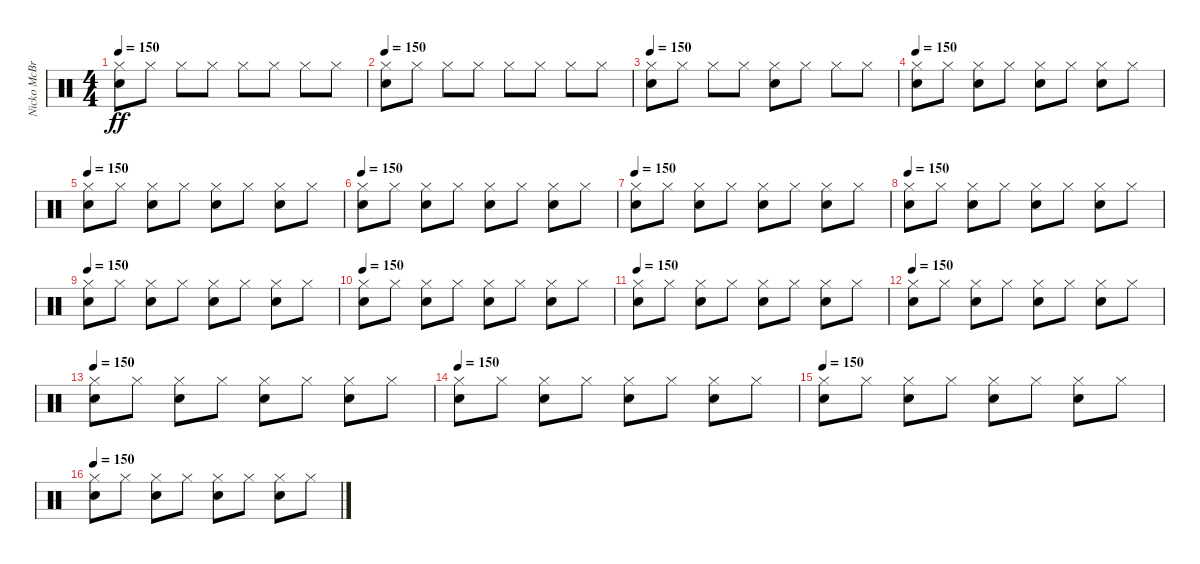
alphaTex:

\track ("Nicko McBrain" "Nicko McBr") {instrument percussion}
\staff {score}
\articulation defaults
\ts (4 4)
\tempo 150
\clef neutral
\ks c
("Snare (hit) 2" "Hi-Hat (closed)").8{dy ff} "Hi-Hat (closed)".8 "Hi-Hat (closed)".8 "Hi-Hat (closed)".8 "Hi-Hat (closed)".8 "Hi-Hat (closed)".8 "Hi-Hat (closed)".8 "Hi-Hat (closed)".8 |
\tempo 150
("Snare (hit) 2" "Hi-Hat (closed)").8 "Hi-Hat (closed)".8 "Hi-Hat (closed)".8 "Hi-Hat (closed)".8 "Hi-Hat (closed)".8 "Hi-Hat (closed)".8 "Hi-Hat (closed)".8 "Hi-Hat (closed)".8 |
\tempo 150
("Snare (hit) 2" "Hi-Hat (closed)").8 "Hi-Hat (closed)".8 "Hi-Hat (closed)".8 "Hi-Hat (closed)".8 ("Snare (hit) 2" "Hi-Hat (closed)").8 "Hi-Hat (closed)".8 "Hi-Hat (closed)".8 "Hi-Hat (closed)".8 |
\tempo 150
("Snare (hit) 2" "Hi-Hat (closed)").8 "Hi-Hat (closed)".8 ("Snare (hit) 2" "Hi-Hat (closed)").8 "Hi-Hat (closed)".8 ("Snare (hit) 2" "Hi-Hat (closed)").8 "Hi-Hat (closed)".8 ("Snare (hit) 2" "Hi-Hat (closed)").8 "Hi-Hat (closed)".8 |
\tempo 150
("Snare (hit) 2" "Hi-Hat (closed)").8 "Hi-Hat (closed)".8 ("Snare (hit) 2" "Hi-Hat (closed)").8 "Hi-Hat (closed)".8 ("Snare (hit) 2" "Hi-Hat (closed)").8 "Hi-Hat (closed)".8 ("Snare (hit) 2" "Hi-Hat (closed)").8 "Hi-Hat (closed)".8 |
\tempo 150
("Snare (hit) 2" "Hi-Hat (closed)").8 "Hi-Hat (closed)".8 ("Snare (hit) 2" "Hi-Hat (closed)").8 "Hi-Hat (closed)".8 ("Snare (hit) 2" "Hi-Hat (closed)").8 "Hi-Hat (closed)".8 ("Snare (hit) 2" "Hi-Hat (closed)").8 "Hi-Hat (closed)".8 |
\tempo 150
("Snare (hit) 2" "Hi-Hat (closed)").8 "Hi-Hat (closed)".8 ("Snare (hit) 2" "Hi-Hat (closed)").8 "Hi-Hat (closed)".8 ("Snare (hit) 2" "Hi-Hat (closed)").8 "Hi-Hat (closed)".8 ("Snare (hit) 2" "Hi-Hat (closed)").8 "Hi-Hat (closed)".8 |
\tempo 150
("Snare (hit) 2" "Hi-Hat (closed)").8 "Hi-Hat (closed)".8 ("Snare (hit) 2" "Hi-Hat (closed)").8 "Hi-Hat (closed)".8 ("Snare (hit) 2" "Hi-Hat (closed)").8 "Hi-Hat (closed)".8 ("Snare (hit) 2" "Hi-Hat (closed)").8 "Hi-Hat (closed)".8 |
\tempo 150
("Snare (hit) 2" "Hi-Hat (closed)").8 "Hi-Hat (closed)".8 ("Snare (hit) 2" "Hi-Hat (closed)").8 "Hi-Hat (closed)".8 ("Snare (hit) 2" "Hi-Hat (closed)").8 "Hi-Hat (closed)".8 ("Snare (hit) 2" "Hi-Hat (closed)").8 "Hi-Hat (closed)".8 |
\tempo 150
("Snare (hit) 2" "Hi-Hat (closed)").8 "Hi-Hat (closed)".8 ("Snare (hit) 2" "Hi-Hat (closed)").8 "Hi-Hat (closed)".8 ("Snare (hit) 2" "Hi-Hat (closed)").8 "Hi-Hat (closed)".8 ("Snare (hit) 2" "Hi-Hat (closed)").8 "Hi-Hat (closed)".8 |
\tempo 150
("Snare (hit) 2" "Hi-Hat (closed)").8 "Hi-Hat (closed)".8 ("Snare (hit) 2" "Hi-Hat (closed)").8 "Hi-Hat (closed)".8 ("Snare (hit) 2" "Hi-Hat (closed)").8 "Hi-Hat (closed)".8 ("Snare (hit) 2" "Hi-Hat (closed)").8 "Hi-Hat (closed)".8 |
\tempo 150
("Snare (hit) 2" "Hi-Hat (closed)").8 "Hi-Hat (closed)".8 ("Snare (hit) 2" "Hi-Hat (closed)").8 "Hi-Hat (closed)".8 ("Snare (hit) 2" "Hi-Hat (closed)").8 "Hi-Hat (closed)".8 ("Snare (hit) 2" "Hi-Hat (closed)").8 "Hi-Hat (closed)".8 |
\tempo 150
("Snare (hit) 2" "Hi-Hat (closed)").8 "Hi-Hat (closed)".8 ("Snare (hit) 2" "Hi-Hat (closed)").8 "Hi-Hat (closed)".8 ("Snare (hit) 2" "Hi-Hat (closed)").8 "Hi-Hat (closed)".8 ("Snare (hit) 2" "Hi-Hat (closed)").8 "Hi-Hat (closed)".8 |
\tempo 150
("Snare (hit) 2" "Hi-Hat (closed)").8 "Hi-Hat (closed)".8 ("Snare (hit) 2" "Hi-Hat (closed)").8 "Hi-Hat (closed)".8 ("Snare (hit) 2" "Hi-Hat (closed)").8 "Hi-Hat (closed)".8 ("Snare (hit) 2" "Hi-Hat (closed)").8 "Hi-Hat (closed)".8 |
\tempo 150
("Snare (hit) 2" "Hi-Hat (closed)").8 "Hi-Hat (closed)".8 ("Snare (hit) 2" "Hi-Hat (closed)").8 "Hi-Hat (closed)".8 ("Snare (hit) 2" "Hi-Hat (closed)").8 "Hi-Hat (closed)".8 ("Snare (hit) 2" "Hi-Hat (closed)").8 "Hi-Hat (closed)".8 |
\tempo 150
("Snare (hit) 2" "Hi-Hat (closed)").8 "Hi-Hat (closed)".8 ("Snare (hit) 2" "Hi-Hat (closed)").8 "Hi-Hat (closed)".8 ("Snare (hit) 2" "Hi-Hat (closed)").8 "Hi-Hat (closed)".8 ("Snare (hit) 2" "Hi-Hat (closed)").8 "Hi-Hat (closed)".8
